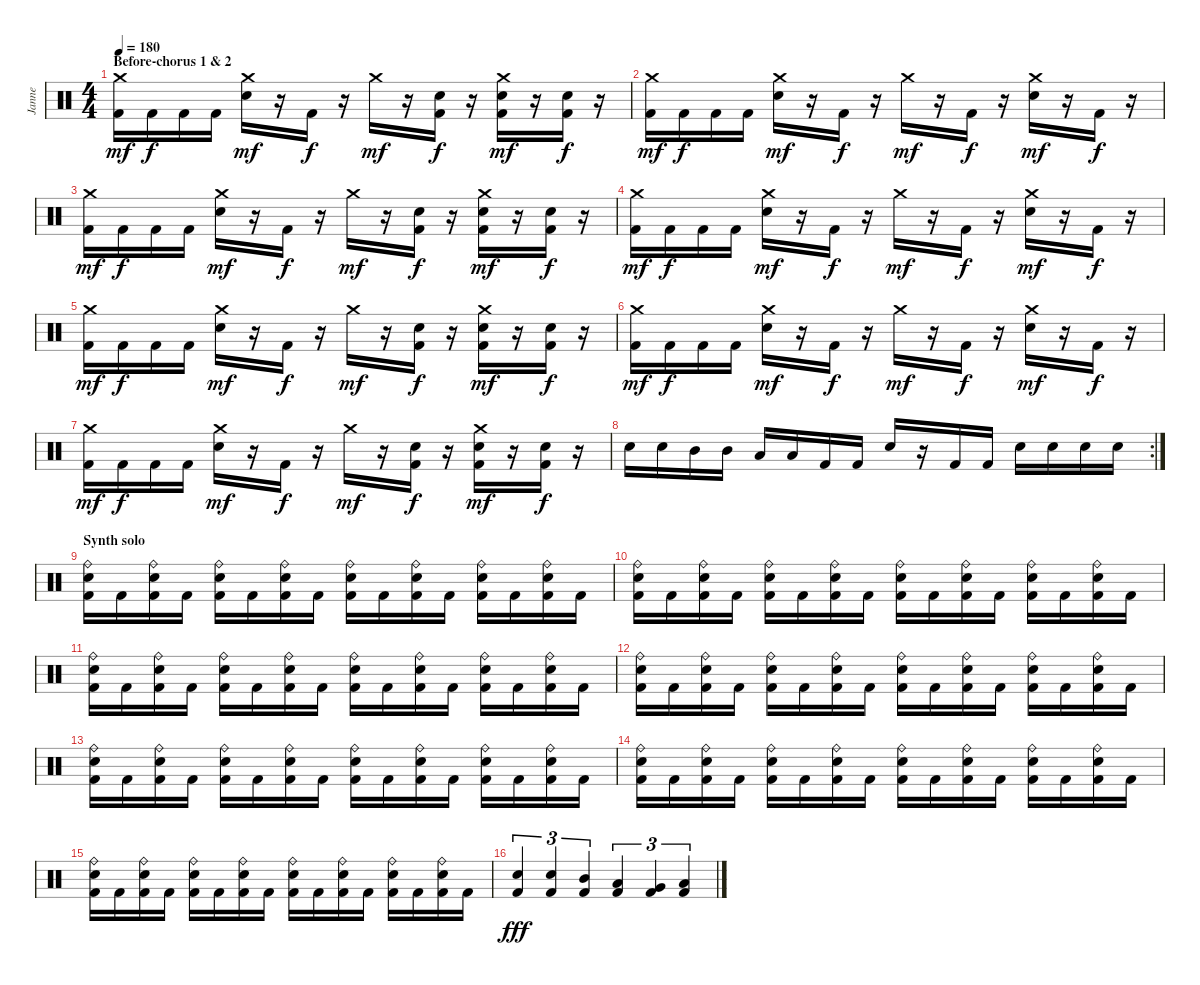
\track ("Janne" "Janne") {instrument percussion}
\staff {score}
\articulation defaults
\ts (4 4)
\section ("" "Before-chorus 1 & 2")
\tempo 180
\clef neutral
\ks c
("Crash medium (hit)" "Kick (hit) 2").16{dy mf} "Kick (hit) 2".16{dy f} "Kick (hit) 2".16 "Kick (hit) 2".16 ("Crash medium (hit)" "Electric Snare (hit)").16{dy mf} r.16 "Kick (hit) 2".16{dy f} r.16 "Crash medium (hit)".16{dy mf} r.16 ("Electric Snare (hit)" "Kick (hit) 2").16{dy f} r.16 ("Crash medium (hit)" "Electric Snare (hit)" "Kick (hit) 2").16{dy mf} r.16 ("Electric Snare (hit)" "Kick (hit) 2").16{dy f} r.16 |
("Crash medium (hit)" "Kick (hit) 2").16{dy mf} "Kick (hit) 2".16{dy f} "Kick (hit) 2".16 "Kick (hit) 2".16 ("Crash medium (hit)" "Electric Snare (hit)").16{dy mf} r.16 "Kick (hit) 2".16{dy f} r.16 "Crash medium (hit)".16{dy mf} r.16 "Kick (hit) 2".16{dy f} r.16 ("Crash medium (hit)" "Electric Snare (hit)").16{dy mf} r.16 "Kick (hit) 2".16{dy f} r.16 |
("Crash medium (hit)" "Kick (hit) 2").16{dy mf} "Kick (hit) 2".16{dy f} "Kick (hit) 2".16 "Kick (hit) 2".16 ("Crash medium (hit)" "Electric Snare (hit)").16{dy mf} r.16 "Kick (hit) 2".16{dy f} r.16 "Crash medium (hit)".16{dy mf} r.16 ("Electric Snare (hit)" "Kick (hit) 2").16{dy f} r.16 ("Crash medium (hit)" "Electric Snare (hit)" "Kick (hit) 2").16{dy mf} r.16 ("Electric Snare (hit)" "Kick (hit) 2").16{dy f} r.16 |
("Crash medium (hit)" "Kick (hit) 2").16{dy mf} "Kick (hit) 2".16{dy f} "Kick (hit) 2".16 "Kick (hit) 2".16 ("Crash medium (hit)" "Electric Snare (hit)").16{dy mf} r.16 "Kick (hit) 2".16{dy f} r.16 "Crash medium (hit)".16{dy mf} r.16 "Kick (hit) 2".16{dy f} r.16 ("Crash medium (hit)" "Electric Snare (hit)").16{dy mf} r.16 "Kick (hit) 2".16{dy f} r.16 |
("Crash medium (hit)" "Kick (hit) 2").16{dy mf} "Kick (hit) 2".16{dy f} "Kick (hit) 2".16 "Kick (hit) 2".16 ("Crash medium (hit)" "Electric Snare (hit)").16{dy mf} r.16 "Kick (hit) 2".16{dy f} r.16 "Crash medium (hit)".16{dy mf} r.16 ("Electric Snare (hit)" "Kick (hit) 2").16{dy f} r.16 ("Crash medium (hit)" "Electric Snare (hit)" "Kick (hit) 2").16{dy mf} r.16 ("Electric Snare (hit)" "Kick (hit) 2").16{dy f} r.16 |
("Crash medium (hit)" "Kick (hit) 2").16{dy mf} "Kick (hit) 2".16{dy f} "Kick (hit) 2".16 "Kick (hit) 2".16 ("Crash medium (hit)" "Electric Snare (hit)").16{dy mf} r.16 "Kick (hit) 2".16{dy f} r.16 "Crash medium (hit)".16{dy mf} r.16 "Kick (hit) 2".16{dy f} r.16 ("Crash medium (hit)" "Electric Snare (hit)").16{dy mf} r.16 "Kick (hit) 2".16{dy f} r.16 |
("Crash medium (hit)" "Kick (hit) 2").16{dy mf} "Kick (hit) 2".16{dy f} "Kick (hit) 2".16 "Kick (hit) 2".16 ("Crash medium (hit)" "Electric Snare (hit)").16{dy mf} r.16 "Kick (hit) 2".16{dy f} r.16 "Crash medium (hit)".16{dy mf} r.16 ("Electric Snare (hit)" "Kick (hit) 2").16{dy f} r.16 ("Crash medium (hit)" "Electric Snare (hit)" "Kick (hit) 2").16{dy mf} r.16 ("Electric Snare (hit)" "Kick (hit) 2").16{dy f} r.16 |
\rc 2 "Electric Snare (hit)".16 "Electric Snare (hit)".16 "Mid Tom (hit)".16 "Mid Tom (hit)".16 "Low Tom (hit)".16 "Low Tom (hit)".16 "Kick (hit) 2".16 "Kick (hit) 2".16 "Electric Snare (hit)".16
r.16 "Kick (hit) 2".16 "Kick (hit) 2".16 "Electric Snare (hit)".16 "Electric Snare (hit)".16 "Electric Snare (hit)".16 "Electric Snare (hit)".16 |
\section ("" "Synth solo")
("Ride (bell)" "Electric Snare (hit)" "Kick (hit) 2").16 "Kick (hit) 2".16 ("Ride (bell)" "Electric Snare (hit)" "Kick (hit) 2").16 "Kick (hit) 2".16 ("Ride (bell)" "Electric Snare (hit)" "Kick (hit) 2").16 "Kick (hit) 2".16 ("Ride (bell)" "Electric Snare (hit)" "Kick (hit) 2").16 "Kick (hit) 2".16 ("Ride (bell)" "Electric Snare (hit)" "Kick (hit) 2").16 "Kick (hit) 2".16 ("Ride (bell)" "Electric Snare (hit)" "Kick (hit) 2").16 "Kick (hit) 2".16 ("Ride (bell)" "Electric Snare (hit)" "Kick (hit) 2").16 "Kick (hit) 2".16 ("Ride (bell)" "Electric Snare (hit)" "Kick (hit) 2").16 "Kick (hit) 2".16 |
("Ride (bell)" "Electric Snare (hit)" "Kick (hit) 2").16 "Kick (hit) 2".16 ("Ride (bell)" "Electric Snare (hit)" "Kick (hit) 2").16 "Kick (hit) 2".16 ("Ride (bell)" "Electric Snare (hit)" "Kick (hit) 2").16 "Kick (hit) 2".16 ("Ride (bell)" "Electric Snare (hit)" "Kick (hit) 2").16 "Kick (hit) 2".16 ("Ride (bell)" "Electric Snare (hit)" "Kick (hit) 2").16 "Kick (hit) 2".16 ("Ride (bell)" "Electric Snare (hit)" "Kick (hit) 2").16 "Kick (hit) 2".16 ("Ride (bell)" "Electric Snare (hit)" "Kick (hit) 2").16 "Kick (hit) 2".16 ("Ride (bell)" "Electric Snare (hit)" "Kick (hit) 2").16 "Kick (hit) 2".16 |
("Ride (bell)" "Electric Snare (hit)" "Kick (hit) 2").16 "Kick (hit) 2".16 ("Ride (bell)" "Electric Snare (hit)" "Kick (hit) 2").16 "Kick (hit) 2".16 ("Ride (bell)" "Electric Snare (hit)" "Kick (hit) 2").16 "Kick (hit) 2".16 ("Ride (bell)" "Electric Snare (hit)" "Kick (hit) 2").16 "Kick (hit) 2".16 ("Ride (bell)" "Electric Snare (hit)" "Kick (hit) 2").16 "Kick (hit) 2".16 ("Ride (bell)" "Electric Snare (hit)" "Kick (hit) 2").16 "Kick (hit) 2".16 ("Ride (bell)" "Electric Snare (hit)" "Kick (hit) 2").16 "Kick (hit) 2".16 ("Ride (bell)" "Electric Snare (hit)" "Kick (hit) 2").16 "Kick (hit) 2".16 |
("Ride (bell)" "Electric Snare (hit)" "Kick (hit) 2").16 "Kick (hit) 2".16 ("Ride (bell)" "Electric Snare (hit)" "Kick (hit) 2").16 "Kick (hit) 2".16 ("Ride (bell)" "Electric Snare (hit)" "Kick (hit) 2").16 "Kick (hit) 2".16 ("Ride (bell)" "Electric Snare (hit)" "Kick (hit) 2").16 "Kick (hit) 2".16 ("Ride (bell)" "Electric Snare (hit)" "Kick (hit) 2").16 "Kick (hit) 2".16 ("Ride (bell)" "Electric Snare (hit)" "Kick (hit) 2").16 "Kick (hit) 2".16 ("Ride (bell)" "Electric Snare (hit)" "Kick (hit) 2").16 "Kick (hit) 2".16 ("Ride (bell)" "Electric Snare (hit)" "Kick (hit) 2").16 "Kick (hit) 2".16 |
("Ride (bell)" "Electric Snare (hit)" "Kick (hit) 2").16 "Kick (hit) 2".16 ("Ride (bell)" "Electric Snare (hit)" "Kick (hit) 2").16 "Kick (hit) 2".16 ("Ride (bell)" "Electric Snare (hit)" "Kick (hit) 2").16 "Kick (hit) 2".16 ("Ride (bell)" "Electric Snare (hit)" "Kick (hit) 2").16 "Kick (hit) 2".16 ("Ride (bell)" "Electric Snare (hit)" "Kick (hit) 2").16 "Kick (hit) 2".16 ("Ride (bell)" "Electric Snare (hit)" "Kick (hit) 2").16 "Kick (hit) 2".16 ("Ride (bell)" "Electric Snare (hit)" "Kick (hit) 2").16 "Kick (hit) 2".16 ("Ride (bell)" "Electric Snare (hit)" "Kick (hit) 2").16 "Kick (hit) 2".16 |
("Ride (bell)" "Electric Snare (hit)" "Kick (hit) 2").16 "Kick (hit) 2".16 ("Ride (bell)" "Electric Snare (hit)" "Kick (hit) 2").16 "Kick (hit) 2".16 ("Ride (bell)" "Electric Snare (hit)" "Kick (hit) 2").16 "Kick (hit) 2".16 ("Ride (bell)" "Electric Snare (hit)" "Kick (hit) 2").16 "Kick (hit) 2".16 ("Ride (bell)" "Electric Snare (hit)" "Kick (hit) 2").16 "Kick (hit) 2".16 ("Ride (bell)" "Electric Snare (hit)" "Kick (hit) 2").16 "Kick (hit) 2".16 ("Ride (bell)" "Electric Snare (hit)" "Kick (hit) 2").16 "Kick (hit) 2".16 ("Ride (bell)" "Electric Snare (hit)" "Kick (hit) 2").16 "Kick (hit) 2".16 |
("Ride (bell)" "Electric Snare (hit)" "Kick (hit) 2").16 "Kick (hit) 2".16 ("Ride (bell)" "Electric Snare (hit)" "Kick (hit) 2").16 "Kick (hit) 2".16 ("Ride (bell)" "Electric Snare (hit)" "Kick (hit) 2").16 "Kick (hit) 2".16 ("Ride (bell)" "Electric Snare (hit)" "Kick (hit) 2").16 "Kick (hit) 2".16 ("Ride (bell)" "Electric Snare (hit)" "Kick (hit) 2").16 "Kick (hit) 2".16 ("Ride (bell)" "Electric Snare (hit)" "Kick (hit) 2").16 "Kick (hit) 2".16 ("Ride (bell)" "Electric Snare (hit)" "Kick (hit) 2").16 "Kick (hit) 2".16 ("Ride (bell)" "Electric Snare (hit)" "Kick (hit) 2").16 "Kick (hit) 2".16 |
("Electric Snare (hit)" "Kick (hit) 2").4{tu (3 2) dy fff} ("Electric Snare (hit)" "Kick (hit) 2").4{tu (3 2)} ("Mid Tom (hit)" "Kick (hit) 2").4{tu (3 2)} ("Low Tom (hit)" "Kick (hit) 2").4{tu (3 2)} ("Very Low Tom (hit)" "Kick (hit) 2").4{tu (3 2)} ("Low Floor Tom (hit)" "Kick (hit) 2").4{tu (3 2)}
